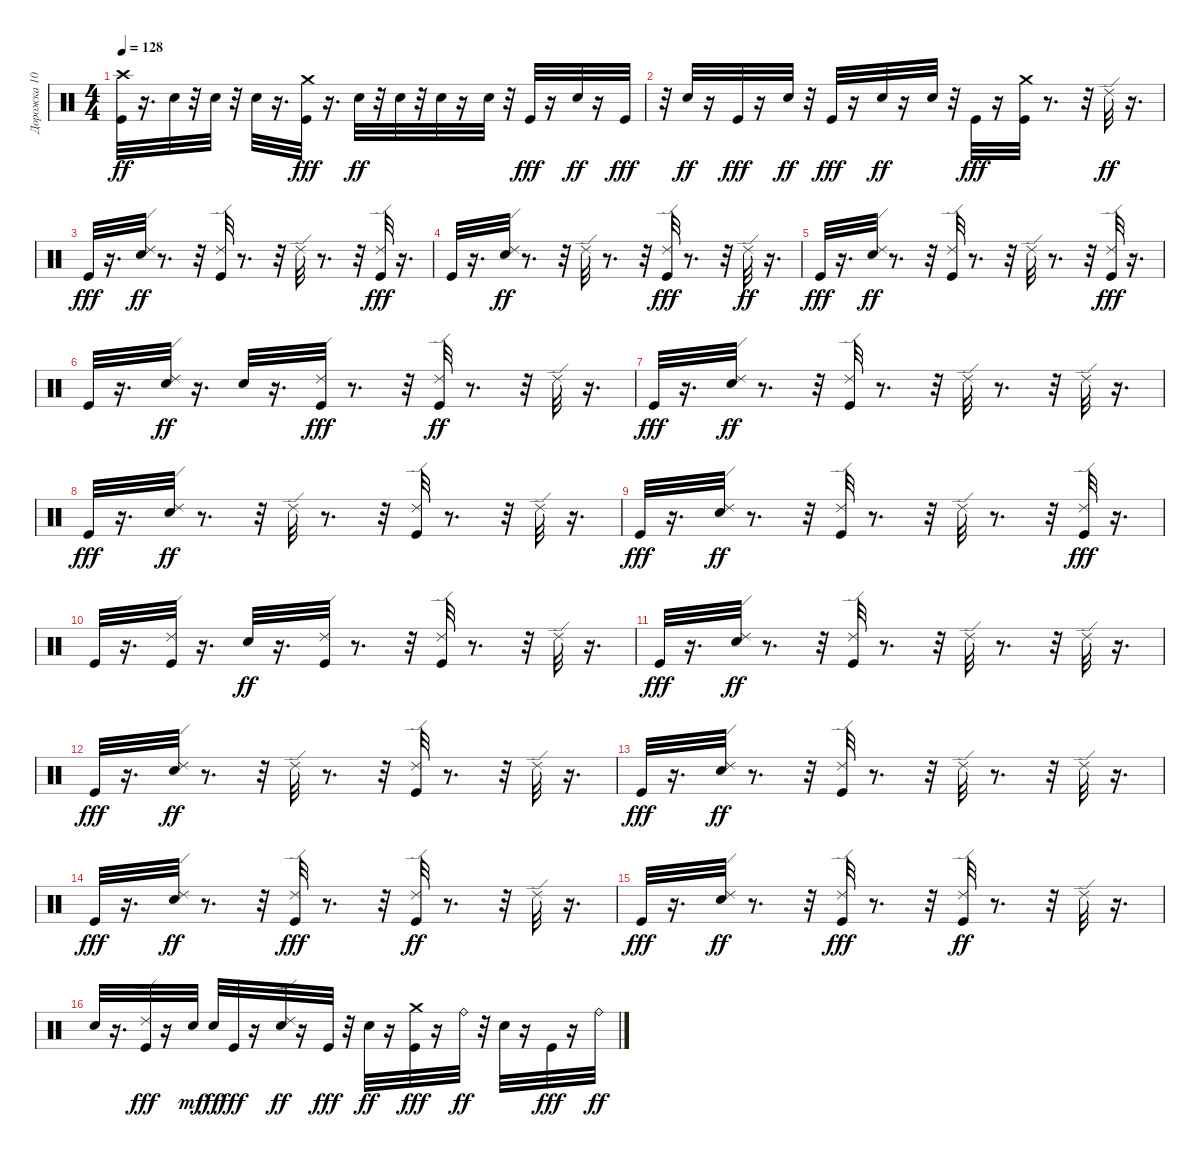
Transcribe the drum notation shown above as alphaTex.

\track ("Дорожка 10" "Дорожка 10") {instrument percussion}
\staff {score}
\articulation defaults
\ts (4 4)
\tempo 128
\clef neutral
\ks c
("Kick (hit)" "Crash high (hit)").32{dy ff} r.16{d} "Electric Snare (hit)".32 r.32 "Electric Snare (hit)".32 r.32 "Electric Snare (hit)".32 r.16{d} ("Crash medium (hit)" "Kick (hit)").32{dy fff} r.16{d} "Electric Snare (hit)".32{dy ff} r.32 "Electric Snare (hit)".32 r.32 "Electric Snare (hit)".32 r.16 "Electric Snare (hit)".32 r.32 "Kick (hit)".32{dy fff} r.16 "Electric Snare (hit)".32{dy ff} r.16 "Kick (hit)".32{dy fff} |
r.32 "Electric Snare (hit)".32{dy ff} r.16 "Kick (hit)".32{dy fff} r.16 "Electric Snare (hit)".32{dy ff} r.32 "Kick (hit)".32{dy fff} r.16 "Electric Snare (hit)".32{dy ff} r.16 "Electric Snare (hit)".32 r.32 "Kick (hit)".32{dy fff} r.16 ("Crash medium (hit)" "Kick (hit)").32 r.8{d} r.32 "Ride (edge) 2".32{dy ff} r.16{d} |
"Kick (hit)".32{dy fff} r.16{d} ("Electric Snare (hit)" "Ride (edge) 2").32{dy ff} r.8{d} r.32 ("Kick (hit)" "Ride (edge) 2").32 r.8{d} r.32 "Ride (edge) 2".32 r.8{d} r.32 ("Ride (edge) 2" "Kick (hit)").32{dy fff} r.16{d} |
"Kick (hit)".32 r.16{d} ("Ride (edge) 2" "Electric Snare (hit)").32{dy ff} r.8{d} r.32 "Ride (edge) 2".32 r.8{d} r.32 ("Ride (edge) 2" "Kick (hit)").32{dy fff} r.8{d} r.32 "Ride (edge) 2".32{dy ff} r.16{d} |
"Kick (hit)".32{dy fff} r.16{d} ("Ride (edge) 2" "Electric Snare (hit)").32{dy ff} r.8{d} r.32 ("Kick (hit)" "Ride (edge) 2").32 r.8{d} r.32 "Ride (edge) 2".32 r.8{d} r.32 ("Ride (edge) 2" "Kick (hit)").32{dy fff} r.16{d} |
"Kick (hit)".32 r.16{d} ("Ride (edge) 2" "Electric Snare (hit)").32{dy ff} r.16{d} "Electric Snare (hit)".32 r.16{d} ("Ride (edge) 2" "Kick (hit)").32{dy fff} r.8{d} r.32 ("Kick (hit)" "Ride (edge) 2").32{dy ff} r.8{d} r.32 "Ride (edge) 2".32 r.16{d} |
"Kick (hit)".32{dy fff} r.16{d} ("Electric Snare (hit)" "Ride (edge) 2").32{dy ff} r.8{d} r.32 ("Kick (hit)" "Ride (edge) 2").32 r.8{d} r.32 "Ride (edge) 2".32 r.8{d} r.32 "Ride (edge) 2".32 r.16{d} |
"Kick (hit)".32{dy fff} r.16{d} ("Ride (edge) 2" "Electric Snare (hit)").32{dy ff} r.8{d} r.32 "Ride (edge) 2".32 r.8{d} r.32 ("Kick (hit)" "Ride (edge) 2").32 r.8{d} r.32 "Ride (edge) 2".32 r.16{d} |
"Kick (hit)".32{dy fff} r.16{d} ("Ride (edge) 2" "Electric Snare (hit)").32{dy ff} r.8{d} r.32 ("Kick (hit)" "Ride (edge) 2").32 r.8{d} r.32 "Ride (edge) 2".32 r.8{d} r.32 ("Ride (edge) 2" "Kick (hit)").32{dy fff} r.16{d} |
"Kick (hit)".32 r.16{d} ("Ride (edge) 2" "Kick (hit)").32 r.16{d} "Electric Snare (hit)".32{dy ff} r.16{d} ("Kick (hit)" "Ride (edge) 2").32 r.8{d} r.32 ("Kick (hit)" "Ride (edge) 2").32 r.8{d} r.32 "Ride (edge) 2".32 r.16{d} |
"Kick (hit)".32{dy fff} r.16{d} ("Ride (edge) 2" "Electric Snare (hit)").32{dy ff} r.8{d} r.32 ("Kick (hit)" "Ride (edge) 2").32 r.8{d} r.32 "Ride (edge) 2".32 r.8{d} r.32 "Ride (edge) 2".32 r.16{d} |
"Kick (hit)".32{dy fff} r.16{d} ("Electric Snare (hit)" "Ride (edge) 2").32{dy ff} r.8{d} r.32 "Ride (edge) 2".32 r.8{d} r.32 ("Kick (hit)" "Ride (edge) 2").32 r.8{d} r.32 "Ride (edge) 2".32 r.16{d} |
"Kick (hit)".32{dy fff} r.16{d} ("Ride (edge) 2" "Electric Snare (hit)").32{dy ff} r.8{d} r.32 ("Kick (hit)" "Ride (edge) 2").32 r.8{d} r.32 "Ride (edge) 2".32 r.8{d} r.32 "Ride (edge) 2".32 r.16{d} |
"Kick (hit)".32{dy fff} r.16{d} ("Electric Snare (hit)" "Ride (edge) 2").32{dy ff} r.8{d} r.32 ("Ride (edge) 2" "Kick (hit)").32{dy fff} r.8{d} r.32 ("Kick (hit)" "Ride (edge) 2").32{dy ff} r.8{d} r.32 "Ride (edge) 2".32 r.16{d} |
"Kick (hit)".32{dy fff} r.16{d} ("Ride (edge) 2" "Electric Snare (hit)").32{dy ff} r.8{d} r.32 ("Ride (edge) 2" "Kick (hit)").32{dy fff} r.8{d} r.32 ("Kick (hit)" "Ride (edge) 2").32{dy ff} r.8{d} r.32 "Ride (edge) 2".32 r.16{d} |
"Electric Snare (hit)".32 r.16{d} ("Ride (edge) 2" "Kick (hit)").32{dy fff} r.16 "Electric Snare (hit)".32{dy mf} "Electric Snare (hit)".32{dy ff} "Kick (hit)".32{dy fff} r.16 ("Electric Snare (hit)" "Ride (edge) 2").32{dy ff} r.16 "Kick (hit)".32{dy fff} r.32 "Electric Snare (hit)".32{dy ff} r.16 ("Crash medium (hit)" "Kick (hit)").32{dy fff} r.16 "Ride (bell)".32{dy ff} r.32 "Electric Snare (hit)".32 r.16 "Kick (hit)".32{dy fff} r.16 "Ride (bell)".32{dy ff}
